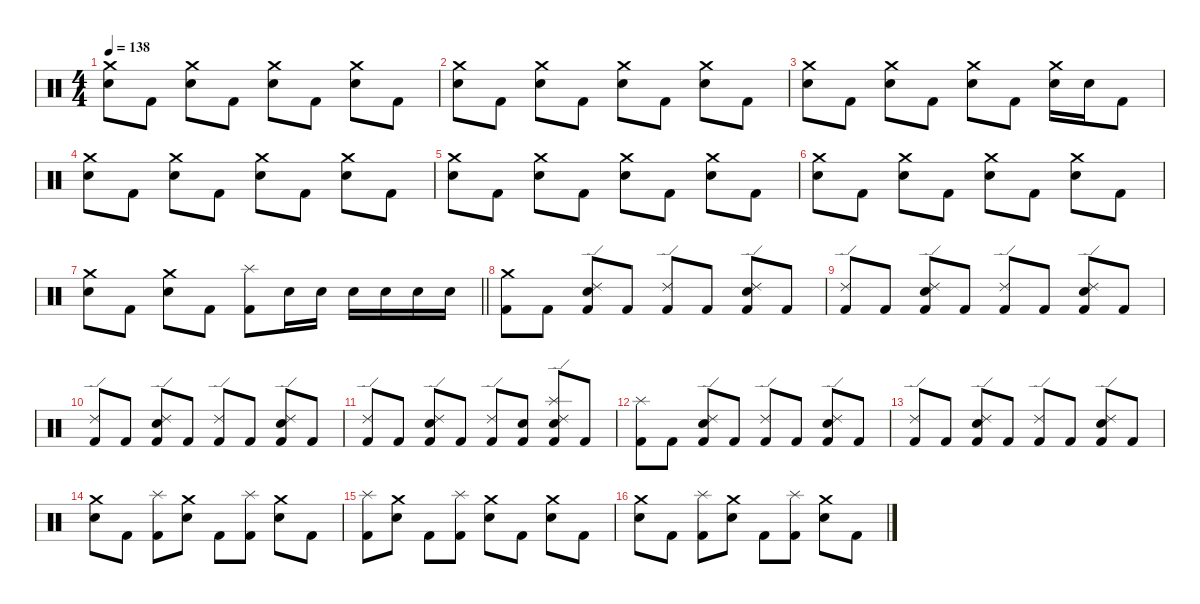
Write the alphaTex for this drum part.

\defaultSystemsLayout 4
\hideDynamics
\bracketExtendMode nobrackets
\singleTrackTrackNamePolicy hidden
\multiTrackTrackNamePolicy hidden
\firstSystemTrackNameMode fullname
\firstSystemTrackNameOrientation horizontal
\otherSystemsTrackNameOrientation horizontal
\track ("Drums" "drm.") {instrument percussion}
\staff {score}
\articulation defaults
\ts (4 4)
\tempo 138
\clef neutral
\ks c
("Crash medium (hit)" "Snare (hit) 2").8{dy f beam Down} "Kick (hit) 2".8{beam Down} ("Crash medium (hit)" "Snare (hit) 2").8{beam Down} "Kick (hit) 2".8{beam Down} ("Crash medium (hit)" "Snare (hit) 2").8{beam Down} "Kick (hit) 2".8{beam Down} ("Crash medium (hit)" "Snare (hit) 2").8{beam Down} "Kick (hit) 2".8{beam Down} |
("Crash medium (hit)" "Snare (hit) 2").8{beam Down} "Kick (hit) 2".8{beam Down} ("Crash medium (hit)" "Snare (hit) 2").8{beam Down} "Kick (hit) 2".8{beam Down} ("Crash medium (hit)" "Snare (hit) 2").8{beam Down} "Kick (hit) 2".8{beam Down} ("Crash medium (hit)" "Snare (hit) 2").8{beam Down} "Kick (hit) 2".8{beam Down} |
("Crash medium (hit)" "Snare (hit) 2").8{beam Down} "Kick (hit) 2".8{beam Down} ("Crash medium (hit)" "Snare (hit) 2").8{beam Down} "Kick (hit) 2".8{beam Down} ("Crash medium (hit)" "Snare (hit) 2").8{beam Down} "Kick (hit) 2".8{beam Down} ("Crash medium (hit)" "Snare (hit) 2").16{beam Down} "Snare (hit) 2".16{beam Down} "Kick (hit) 2".8{beam Down} |
("Crash medium (hit)" "Snare (hit) 2").8{beam Down} "Kick (hit) 2".8{beam Down} ("Crash medium (hit)" "Snare (hit) 2").8{beam Down} "Kick (hit) 2".8{beam Down} ("Crash medium (hit)" "Snare (hit) 2").8{beam Down} "Kick (hit) 2".8{beam Down} ("Crash medium (hit)" "Snare (hit) 2").8{beam Down} "Kick (hit) 2".8{beam Down} |
("Crash medium (hit)" "Snare (hit) 2").8{beam Down} "Kick (hit) 2".8{beam Down} ("Crash medium (hit)" "Snare (hit) 2").8{beam Down} "Kick (hit) 2".8{beam Down} ("Crash medium (hit)" "Snare (hit) 2").8{beam Down} "Kick (hit) 2".8{beam Down} ("Crash medium (hit)" "Snare (hit) 2").8{beam Down} "Kick (hit) 2".8{beam Down} |
("Crash medium (hit)" "Snare (hit) 2").8{beam Down} "Kick (hit) 2".8{beam Down} ("Crash medium (hit)" "Snare (hit) 2").8{beam Down} "Kick (hit) 2".8{beam Down} ("Crash medium (hit)" "Snare (hit) 2").8{beam Down} "Kick (hit) 2".8{beam Down} ("Crash medium (hit)" "Snare (hit) 2").8{beam Down} "Kick (hit) 2".8{beam Down} |
\barLineRight lightlight
("Crash medium (hit)" "Snare (hit) 2").8{beam Down} "Kick (hit) 2".8{beam Down} ("Crash medium (hit)" "Snare (hit) 2").8{beam Down} "Kick (hit) 2".8{beam Down} ("Splash (hit)" "Kick (hit) 2").8{beam Down} "Snare (hit) 2".16{beam Down} "Snare (hit) 2".16{beam Down} "Snare (hit) 2".16{beam Down} "Snare (hit) 2".16{beam Down} "Snare (hit) 2".16{beam Down} "Snare (hit) 2".16{beam Down} |
\section ("" "")
("Crash medium (hit)" "Kick (hit) 2").8{beam Down} "Kick (hit) 2".8{beam Down} ("Ride (edge) 2" "Snare (hit) 2" "Kick (hit) 2").8{beam Up} "Kick (hit) 2".8{beam Up} ("Ride (edge) 2" "Kick (hit) 2").8{beam Up} "Kick (hit) 2".8{beam Up} ("Ride (edge) 2" "Snare (hit) 2" "Kick (hit) 2").8{beam Up} "Kick (hit) 2".8{beam Up} |
("Ride (edge) 2" "Kick (hit) 2").8{beam Up} "Kick (hit) 2".8{beam Up} ("Ride (edge) 2" "Snare (hit) 2" "Kick (hit) 2").8{beam Up} "Kick (hit) 2".8{beam Up} ("Ride (edge) 2" "Kick (hit) 2").8{beam Up} "Kick (hit) 2".8{beam Up} ("Ride (edge) 2" "Snare (hit) 2" "Kick (hit) 2").8{beam Up} "Kick (hit) 2".8{beam Up} |
("Ride (edge) 2" "Kick (hit) 2").8{beam Up} "Kick (hit) 2".8{beam Up} ("Ride (edge) 2" "Snare (hit) 2" "Kick (hit) 2").8{beam Up} "Kick (hit) 2".8{beam Up} ("Ride (edge) 2" "Kick (hit) 2").8{beam Up} "Kick (hit) 2".8{beam Up} ("Ride (edge) 2" "Snare (hit) 2" "Kick (hit) 2").8{beam Up} "Kick (hit) 2".8{beam Up} |
("Ride (edge) 2" "Kick (hit) 2").8{beam Up} "Kick (hit) 2".8{beam Up} ("Ride (edge) 2" "Snare (hit) 2" "Kick (hit) 2").8{beam Up} "Kick (hit) 2".8{beam Up} ("Ride (edge) 2" "Kick (hit) 2").8{beam Up} ("Snare (hit) 2" "Kick (hit) 2").8{beam Up} ("Splash (hit)" "Ride (edge) 2" "Snare (hit) 2" "Kick (hit) 2").8{beam Up} "Kick (hit) 2".8{beam Up} |
("Splash (hit)" "Kick (hit) 2").8{beam Down} "Kick (hit) 2".8{beam Down} ("Ride (edge) 2" "Snare (hit) 2" "Kick (hit) 2").8{beam Up} "Kick (hit) 2".8{beam Up} ("Ride (edge) 2" "Kick (hit) 2").8{beam Up} "Kick (hit) 2".8{beam Up} ("Ride (edge) 2" "Snare (hit) 2" "Kick (hit) 2").8{beam Up} "Kick (hit) 2".8{beam Up} |
("Ride (edge) 2" "Kick (hit) 2").8{beam Up} "Kick (hit) 2".8{beam Up} ("Ride (edge) 2" "Snare (hit) 2" "Kick (hit) 2").8{beam Up} "Kick (hit) 2".8{beam Up} ("Ride (edge) 2" "Kick (hit) 2").8{beam Up} "Kick (hit) 2".8{beam Up} ("Ride (edge) 2" "Snare (hit) 2" "Kick (hit) 2").8{beam Up} "Kick (hit) 2".8{beam Up} |
("Crash medium (hit)" "Snare (hit) 2").8{beam Down} "Kick (hit) 2".8{beam Down} ("Splash (hit)" "Kick (hit) 2").8{beam Down} ("Crash medium (hit)" "Snare (hit) 2").8{beam Down} "Kick (hit) 2".8{beam Down} ("Splash (hit)" "Kick (hit) 2").8{beam Down} ("Crash medium (hit)" "Snare (hit) 2").8{beam Down} "Kick (hit) 2".8{beam Down} |
("Splash (hit)" "Kick (hit) 2").8{beam Down} ("Crash medium (hit)" "Snare (hit) 2").8{beam Down} "Kick (hit) 2".8{beam Down} ("Splash (hit)" "Kick (hit) 2").8{beam Down} ("Crash medium (hit)" "Snare (hit) 2").8{beam Down} "Kick (hit) 2".8{beam Down} ("Crash medium (hit)" "Snare (hit) 2").8{beam Down} "Kick (hit) 2".8{beam Down} |
("Crash medium (hit)" "Snare (hit) 2").8{beam Down} "Kick (hit) 2".8{beam Down} ("Splash (hit)" "Kick (hit) 2").8{beam Down} ("Crash medium (hit)" "Snare (hit) 2").8{beam Down} "Kick (hit) 2".8{beam Down} ("Splash (hit)" "Kick (hit) 2").8{beam Down} ("Crash medium (hit)" "Snare (hit) 2").8{beam Down} "Kick (hit) 2".8{beam Down}
